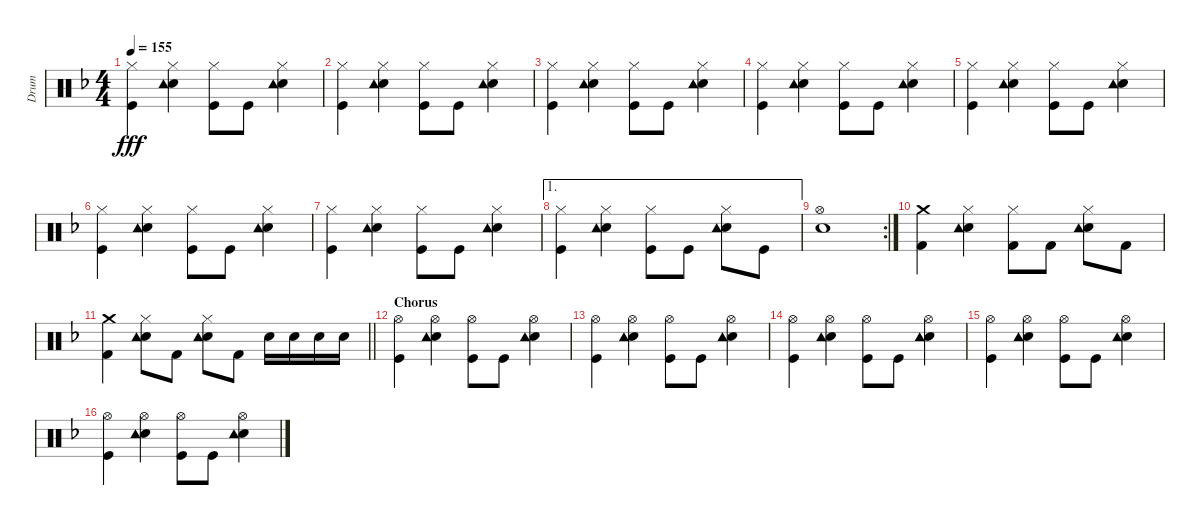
\track ("Drum" "Drum") {instrument percussion}
\staff {score}
\articulation defaults
\ts (4 4)
\tempo 155
\clef neutral
\ks f
("Hi-Hat (closed)" "Kick (hit)").4{dy fff} ("Hi-Hat (closed)" "Electric Snare (hit)" "Tambourine (hit)").4 ("Hi-Hat (closed)" "Kick (hit)").8 "Kick (hit)".8 ("Hi-Hat (closed)" "Electric Snare (hit)" "Tambourine (hit)").4 |
("Hi-Hat (closed)" "Kick (hit)").4 ("Hi-Hat (closed)" "Electric Snare (hit)" "Tambourine (hit)").4 ("Hi-Hat (closed)" "Kick (hit)").8 "Kick (hit)".8 ("Hi-Hat (closed)" "Electric Snare (hit)" "Tambourine (hit)").4 |
("Hi-Hat (closed)" "Kick (hit)").4 ("Hi-Hat (closed)" "Electric Snare (hit)" "Tambourine (hit)").4 ("Hi-Hat (closed)" "Kick (hit)").8 "Kick (hit)".8 ("Hi-Hat (closed)" "Electric Snare (hit)" "Tambourine (hit)").4 |
("Hi-Hat (closed)" "Kick (hit)").4 ("Hi-Hat (closed)" "Electric Snare (hit)" "Tambourine (hit)").4 ("Hi-Hat (closed)" "Kick (hit)").8 "Kick (hit)".8 ("Hi-Hat (closed)" "Electric Snare (hit)" "Tambourine (hit)").4 |
("Hi-Hat (closed)" "Kick (hit)").4 ("Hi-Hat (closed)" "Electric Snare (hit)" "Tambourine (hit)").4 ("Hi-Hat (closed)" "Kick (hit)").8 "Kick (hit)".8 ("Hi-Hat (closed)" "Electric Snare (hit)" "Tambourine (hit)").4 |
("Hi-Hat (closed)" "Kick (hit)").4 ("Hi-Hat (closed)" "Electric Snare (hit)" "Tambourine (hit)").4 ("Hi-Hat (closed)" "Kick (hit)").8 "Kick (hit)".8 ("Hi-Hat (closed)" "Electric Snare (hit)" "Tambourine (hit)").4 |
("Hi-Hat (closed)" "Kick (hit)").4 ("Hi-Hat (closed)" "Electric Snare (hit)" "Tambourine (hit)").4 ("Hi-Hat (closed)" "Kick (hit)").8 "Kick (hit)".8 ("Hi-Hat (closed)" "Electric Snare (hit)" "Tambourine (hit)").4 |
\ae 1
("Hi-Hat (closed)" "Kick (hit)").4 ("Hi-Hat (closed)" "Electric Snare (hit)" "Tambourine (hit)").4 ("Hi-Hat (closed)" "Kick (hit)").8 "Kick (hit)".8 ("Hi-Hat (closed)" "Electric Snare (hit)" "Tambourine (hit)").8 "Kick (hit)".8 |
\rc 2
("Hi-Hat (open)" "Electric Snare (hit)").1 |
("Crash medium (hit)" "Kick (hit) 2").4 ("Hi-Hat (closed)" "Electric Snare (hit)" "Tambourine (hit)").4 ("Hi-Hat (closed)" "Kick (hit) 2").8 "Kick (hit) 2".8 ("Hi-Hat (closed)" "Electric Snare (hit)" "Tambourine (hit)").8 "Kick (hit) 2".8 |
\barLineRight lightlight
("Crash medium (hit)" "Kick (hit) 2").4 ("Hi-Hat (closed)" "Electric Snare (hit)" "Tambourine (hit)").8 "Kick (hit) 2".8 ("Hi-Hat (closed)" "Electric Snare (hit)" "Tambourine (hit)").8 "Kick (hit) 2".8 "Electric Snare (hit)".16 "Electric Snare (hit)".16 "Electric Snare (hit)".16 "Electric Snare (hit)".16 |
\section ("" "Chorus")
("Hi-Hat (open)" "Kick (hit)").4 ("Hi-Hat (open)" "Electric Snare (hit)" "Tambourine (hit)").4 ("Hi-Hat (open)" "Kick (hit)").8 "Kick (hit)".8 ("Hi-Hat (open)" "Electric Snare (hit)" "Tambourine (hit)").4 |
("Hi-Hat (open)" "Kick (hit)").4 ("Hi-Hat (open)" "Electric Snare (hit)" "Tambourine (hit)").4 ("Hi-Hat (open)" "Kick (hit)").8 "Kick (hit)".8 ("Hi-Hat (open)" "Electric Snare (hit)" "Tambourine (hit)").4 |
("Hi-Hat (open)" "Kick (hit)").4 ("Hi-Hat (open)" "Electric Snare (hit)" "Tambourine (hit)").4 ("Hi-Hat (open)" "Kick (hit)").8 "Kick (hit)".8 ("Hi-Hat (open)" "Electric Snare (hit)" "Tambourine (hit)").4 |
("Hi-Hat (open)" "Kick (hit)").4 ("Hi-Hat (open)" "Electric Snare (hit)" "Tambourine (hit)").4 ("Hi-Hat (open)" "Kick (hit)").8 "Kick (hit)".8 ("Hi-Hat (open)" "Electric Snare (hit)" "Tambourine (hit)").4 |
("Hi-Hat (open)" "Kick (hit)").4 ("Hi-Hat (open)" "Electric Snare (hit)" "Tambourine (hit)").4 ("Hi-Hat (open)" "Kick (hit)").8 "Kick (hit)".8 ("Hi-Hat (open)" "Electric Snare (hit)" "Tambourine (hit)").4
